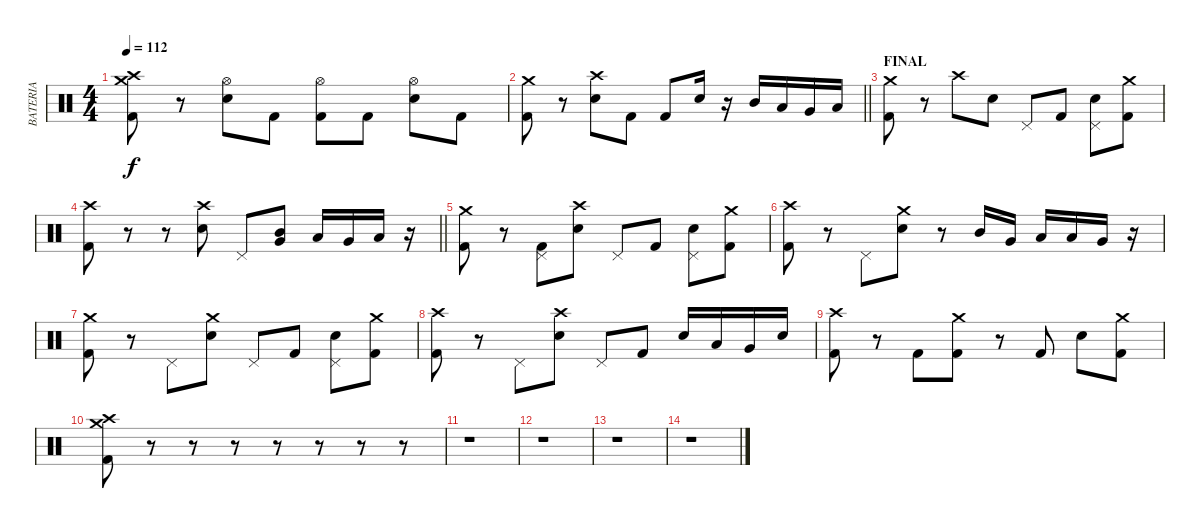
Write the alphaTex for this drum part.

\track ("BATERIA" "BATERIA") {instrument percussion}
\staff {score}
\articulation defaults
\ts (4 4)
\tempo 112
\clef neutral
\ks c
("Kick (hit) 2" "Crash medium (hit)" "Crash high (hit)").8{dy f} r.8 ("Hi-Hat (open)" "Electric Snare (hit)").8 "Kick (hit) 2".8 ("Kick (hit) 2" "Hi-Hat (open)").8 "Kick (hit) 2".8 ("Hi-Hat (open)" "Electric Snare (hit)").8 "Kick (hit) 2".8 |
\barLineRight lightlight
("Kick (hit) 2" "Crash medium (hit)").8 r.8 ("Electric Snare (hit)" "Crash high (hit)").8 "Kick (hit) 2".8 "Kick (hit) 2".8 "Electric Snare (hit)".16 r.16 "Mid Tom (hit)".16 "Low Tom (hit)".16 "Very Low Tom (hit)".16 "Low Floor Tom (hit)".16 |
\section ("" "FINAL")
("Kick (hit) 2" "Crash medium (hit)").8 r.8 "Crash high (hit)".8 "Electric Snare (hit)".8 "Pedal Hi-Hat (hit)".8 "Kick (hit) 2".8 ("Pedal Hi-Hat (hit)" "Electric Snare (hit)").8 ("Kick (hit) 2" "Crash medium (hit)").8 |
\barLineRight lightlight
("Kick (hit) 2" "Crash high (hit)").8 r.8 r.8 ("Electric Snare (hit)" "Crash high (hit)").8 "Pedal Hi-Hat (hit)".8 ("Mid Tom (hit)" "Very Low Tom (hit)").8 "Low Tom (hit)".16 "Very Low Tom (hit)".16 "Low Floor Tom (hit)".16 r.16 |
("Kick (hit) 2" "Crash medium (hit)").8 r.8 ("Kick (hit) 2" "Pedal Hi-Hat (hit)").8 ("Electric Snare (hit)" "Crash high (hit)").8 "Pedal Hi-Hat (hit)".8 "Kick (hit) 2".8 ("Pedal Hi-Hat (hit)" "Electric Snare (hit)").8 ("Kick (hit) 2" "Crash medium (hit)").8 |
("Kick (hit) 2" "Crash high (hit)").8 r.8 "Pedal Hi-Hat (hit)".8 ("Electric Snare (hit)" "Crash medium (hit)").8 r.8 "Mid Tom (hit)".16 "Very Low Tom (hit)".16 "Low Tom (hit)".16 "Low Floor Tom (hit)".16 "Very Low Tom (hit)".16 r.16 |
("Kick (hit) 2" "Crash medium (hit)").8 r.8 "Pedal Hi-Hat (hit)".8 ("Electric Snare (hit)" "Crash medium (hit)").8 "Pedal Hi-Hat (hit)".8 "Kick (hit) 2".8 ("Pedal Hi-Hat (hit)" "Electric Snare (hit)").8 ("Kick (hit) 2" "Crash medium (hit)").8 |
("Kick (hit) 2" "Crash high (hit)").8 r.8 "Pedal Hi-Hat (hit)".8 ("Electric Snare (hit)" "Crash high (hit)").8 "Pedal Hi-Hat (hit)".8 "Kick (hit) 2".8 "Electric Snare (hit)".16 "Low Tom (hit)".16 "Very Low Tom (hit)".16 "Electric Snare (hit)".16 |
("Kick (hit) 2" "Crash high (hit)").8 r.8 "Kick (hit) 2".8 ("Kick (hit) 2" "Crash medium (hit)").8 r.8 "Kick (hit) 2".8 "Electric Snare (hit)".8 ("Kick (hit) 2" "Crash medium (hit)").8 |
("Kick (hit) 2" "Crash medium (hit)" "Crash high (hit)").8 r.8 r.8 r.8 r.8 r.8 r.8 r.8 |
r.1 |
r.1 |
r.1 |
r.1
